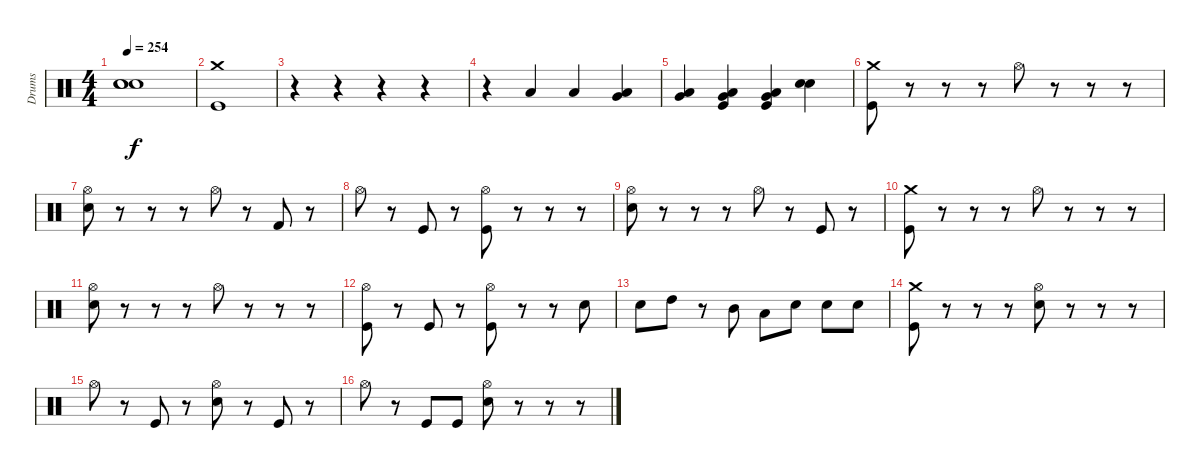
\track ("Drums" "Drums") {instrument percussion}
\staff {score}
\articulation defaults
\ts (4 4)
\tempo 254
\clef neutral
\ks c
("Snare (hit)"{t} "Snare (hit)"{t} "Snare (hit)"{t}).1{dy f} |
("Crash medium (hit)" "Kick (hit)").1 |
r.4 r.4 r.4 r.4 |
r.4 "Low Floor Tom (hit)".4 "Low Floor Tom (hit)".4 ("Very Low Tom (hit)" "Low Floor Tom (hit)").4 |
("Very Low Tom (hit)" "Low Floor Tom (hit)").4 ("Very Low Tom (hit)" "Low Floor Tom (hit)" "Kick (hit)").4 ("Very Low Tom (hit)" "Low Floor Tom (hit)" "Kick (hit)").4 ("Electric Snare (hit)" "Electric Snare (hit)").4{bd 480} |
("Crash medium (hit)" "Kick (hit)").8 r.8 r.8 r.8 "Hi-Hat (open)".8 r.8 r.8 r.8 |
("Hi-Hat (open)" "Electric Snare (hit)").8 r.8 r.8 r.8 "Hi-Hat (open)".8 r.8 "Kick (hit) 2".8 r.8 |
"Hi-Hat (open)".8 r.8 "Kick (hit)".8 r.8 ("Hi-Hat (open)" "Kick (hit)").8 r.8 r.8 r.8 |
("Hi-Hat (open)" "Electric Snare (hit)").8 r.8 r.8 r.8 "Hi-Hat (open)".8 r.8 "Kick (hit)".8 r.8 |
("Crash medium (hit)" "Kick (hit)").8 r.8 r.8 r.8 "Hi-Hat (open)".8 r.8 r.8 r.8 |
("Hi-Hat (open)" "Electric Snare (hit)").8 r.8 r.8 r.8 "Hi-Hat (open)".8 r.8 r.8 r.8 |
("Hi-Hat (open)" "Kick (hit)").8 r.8 "Kick (hit)".8 r.8 ("Hi-Hat (open)" "Kick (hit)").8 r.8 r.8 "Electric Snare (hit)".8 |
"Electric Snare (hit)".8 "High Tom (hit)".8 r.8 "Mid Tom (hit)".8 "Low Tom (hit)".8 "Electric Snare (hit)".8 "Electric Snare (hit)".8 "Electric Snare (hit)".8 |
("Crash medium (hit)" "Kick (hit)").8 r.8 r.8 r.8 ("Hi-Hat (open)" "Electric Snare (hit)").8 r.8 r.8 r.8 |
"Hi-Hat (open)".8 r.8 "Kick (hit)".8 r.8 ("Hi-Hat (open)" "Electric Snare (hit)").8 r.8 "Kick (hit)".8 r.8 |
"Hi-Hat (open)".8 r.8 "Kick (hit)".8 "Kick (hit)".8 ("Hi-Hat (open)" "Electric Snare (hit)").8 r.8 r.8 r.8
